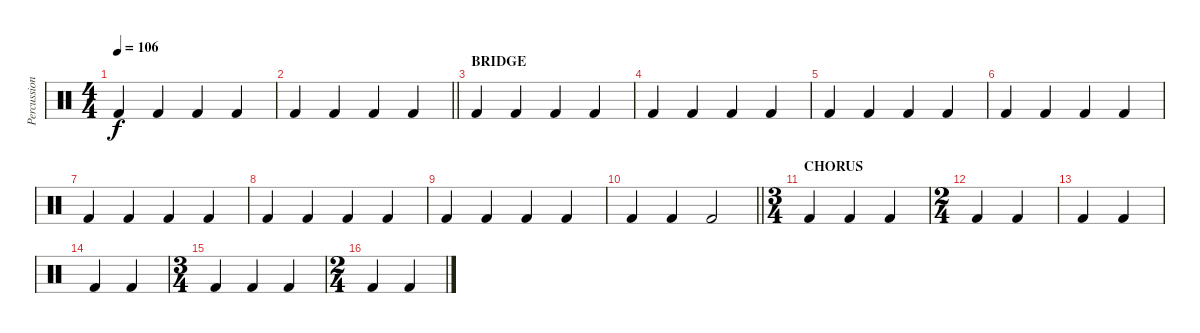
\track ("Percussion" "Percussion") {instrument percussion}
\staff {score}
\articulation defaults
\ts (4 4)
\tempo 106
\clef neutral
\ks c "Kick (hit) 2".4{dy f} "Kick (hit) 2".4 "Kick (hit) 2".4 "Kick (hit) 2".4
|
\barLineRight lightlight "Kick (hit) 2".4 "Kick (hit) 2".4 "Kick (hit) 2".4 "Kick (hit) 2".4
|
\section ("" "BRIDGE")
"Kick (hit) 2".4 "Kick (hit) 2".4 "Kick (hit) 2".4 "Kick (hit) 2".4 |
"Kick (hit) 2".4 "Kick (hit) 2".4 "Kick (hit) 2".4 "Kick (hit) 2".4 |
"Kick (hit) 2".4 "Kick (hit) 2".4 "Kick (hit) 2".4 "Kick (hit) 2".4 |
"Kick (hit) 2".4 "Kick (hit) 2".4 "Kick (hit) 2".4 "Kick (hit) 2".4 |
"Kick (hit) 2".4 "Kick (hit) 2".4 "Kick (hit) 2".4 "Kick (hit) 2".4 |
"Kick (hit) 2".4 "Kick (hit) 2".4 "Kick (hit) 2".4 "Kick (hit) 2".4 |
"Kick (hit) 2".4 "Kick (hit) 2".4 "Kick (hit) 2".4 "Kick (hit) 2".4 |
\barLineRight lightlight "Kick (hit) 2".4 "Kick (hit) 2".4 "Kick (hit) 2".2
|
\ts (3 4)
\section ("" "CHORUS")
"Kick (hit) 2".4 "Kick (hit) 2".4 "Kick (hit) 2".4 |
\ts (2 4)
"Kick (hit) 2".4 "Kick (hit) 2".4 |
"Kick (hit) 2".4 "Kick (hit) 2".4 |
"Kick (hit) 2".4 "Kick (hit) 2".4 |
\ts (3 4)
"Kick (hit) 2".4 "Kick (hit) 2".4 "Kick (hit) 2".4 |
\ts (2 4)
"Kick (hit) 2".4 "Kick (hit) 2".4
